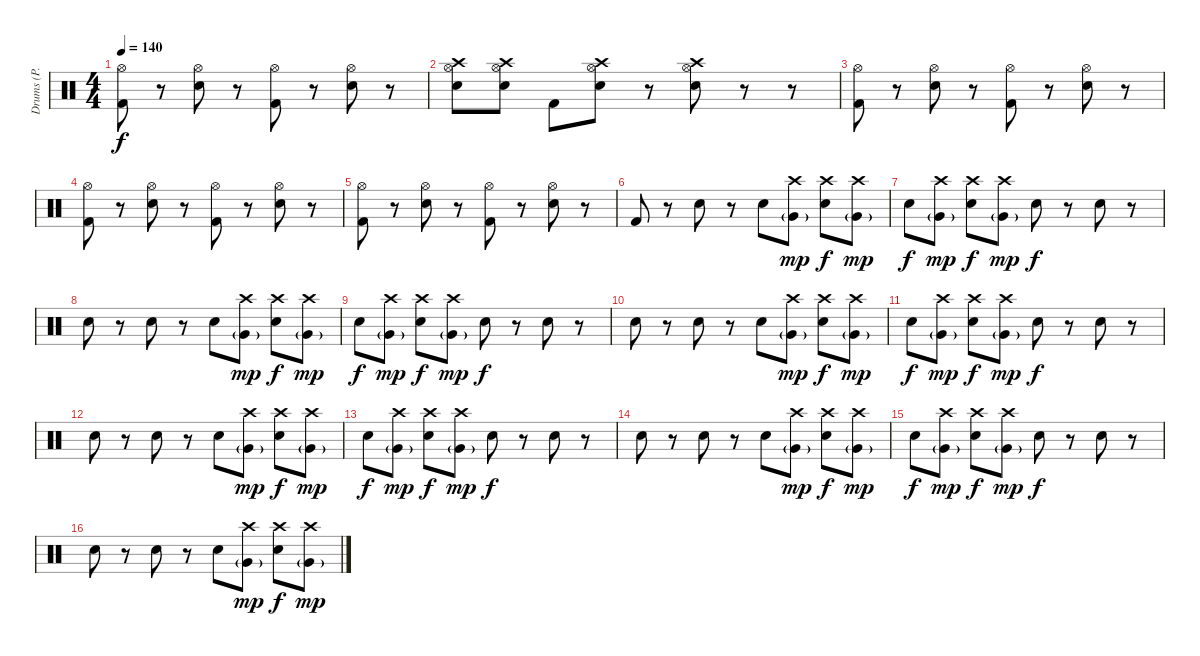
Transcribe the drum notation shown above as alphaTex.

\track ("Drums (P. Rudd)" "Drums (P. ") {instrument percussion}
\staff {score}
\articulation defaults
\ts (4 4)
\tempo 140
\clef neutral
\ks c
("Hi-Hat (open)" "Kick (hit) 2").8{dy f} r.8 ("Hi-Hat (open)" "Snare (hit) 2").8 r.8 ("Hi-Hat (open)" "Kick (hit) 2").8 r.8 ("Hi-Hat (open)" "Snare (hit) 2").8 r.8 |
("Hi-Hat (open)" "Crash high (hit)" "Snare (hit) 2").8 ("Hi-Hat (open)" "Crash high (hit)" "Snare (hit) 2").8 "Kick (hit) 2".8 ("Hi-Hat (open)" "Crash high (hit)" "Snare (hit) 2").8 r.8 ("Hi-Hat (open)" "Crash high (hit)" "Snare (hit) 2").8 r.8 r.8 |
("Hi-Hat (open)" "Kick (hit) 2").8 r.8 ("Hi-Hat (open)" "Snare (hit) 2").8 r.8 ("Hi-Hat (open)" "Kick (hit) 2").8 r.8 ("Hi-Hat (open)" "Snare (hit) 2").8 r.8 |
("Hi-Hat (open)" "Kick (hit) 2").8 r.8 ("Hi-Hat (open)" "Snare (hit) 2").8 r.8 ("Hi-Hat (open)" "Kick (hit) 2").8 r.8 ("Hi-Hat (open)" "Snare (hit) 2").8 r.8 |
("Hi-Hat (open)" "Kick (hit) 2").8 r.8 ("Hi-Hat (open)" "Snare (hit) 2").8 r.8 ("Hi-Hat (open)" "Kick (hit) 2").8 r.8 ("Hi-Hat (open)" "Snare (hit) 2").8 r.8 |
"Kick (hit) 2".8 r.8 "Snare (hit) 2".8 r.8 "Electric Snare (hit)".8 ("Crash high (hit)" "Very Low Tom (hit)"{g}).8{dy mp} ("Crash high (hit)" "Electric Snare (hit)").8{dy f} ("Crash high (hit)" "Very Low Tom (hit)"{g}).8{dy mp} |
"Electric Snare (hit)".8{dy f} ("Crash high (hit)" "Very Low Tom (hit)"{g}).8{dy mp} ("Crash high (hit)" "Electric Snare (hit)").8{dy f} ("Crash high (hit)" "Very Low Tom (hit)"{g}).8{dy mp} "Electric Snare (hit)".8{dy f} r.8 "Electric Snare (hit)".8 r.8 |
"Electric Snare (hit)".8 r.8 "Electric Snare (hit)".8 r.8 "Electric Snare (hit)".8 ("Crash high (hit)" "Very Low Tom (hit)"{g}).8{dy mp} ("Crash high (hit)" "Electric Snare (hit)").8{dy f} ("Crash high (hit)" "Very Low Tom (hit)"{g}).8{dy mp} |
"Electric Snare (hit)".8{dy f} ("Crash high (hit)" "Very Low Tom (hit)"{g}).8{dy mp} ("Crash high (hit)" "Electric Snare (hit)").8{dy f} ("Crash high (hit)" "Very Low Tom (hit)"{g}).8{dy mp} "Electric Snare (hit)".8{dy f} r.8 "Electric Snare (hit)".8 r.8 |
"Electric Snare (hit)".8 r.8 "Electric Snare (hit)".8 r.8 "Electric Snare (hit)".8 ("Crash high (hit)" "Very Low Tom (hit)"{g}).8{dy mp} ("Crash high (hit)" "Electric Snare (hit)").8{dy f} ("Crash high (hit)" "Very Low Tom (hit)"{g}).8{dy mp} |
"Electric Snare (hit)".8{dy f} ("Crash high (hit)" "Very Low Tom (hit)"{g}).8{dy mp} ("Crash high (hit)" "Electric Snare (hit)").8{dy f} ("Crash high (hit)" "Very Low Tom (hit)"{g}).8{dy mp} "Electric Snare (hit)".8{dy f} r.8 "Electric Snare (hit)".8 r.8 |
"Electric Snare (hit)".8 r.8 "Electric Snare (hit)".8 r.8 "Electric Snare (hit)".8 ("Crash high (hit)" "Very Low Tom (hit)"{g}).8{dy mp} ("Crash high (hit)" "Electric Snare (hit)").8{dy f} ("Crash high (hit)" "Very Low Tom (hit)"{g}).8{dy mp} |
"Electric Snare (hit)".8{dy f} ("Crash high (hit)" "Very Low Tom (hit)"{g}).8{dy mp} ("Crash high (hit)" "Electric Snare (hit)").8{dy f} ("Crash high (hit)" "Very Low Tom (hit)"{g}).8{dy mp} "Electric Snare (hit)".8{dy f} r.8 "Electric Snare (hit)".8 r.8 |
"Electric Snare (hit)".8 r.8 "Electric Snare (hit)".8 r.8 "Electric Snare (hit)".8 ("Crash high (hit)" "Very Low Tom (hit)"{g}).8{dy mp} ("Crash high (hit)" "Electric Snare (hit)").8{dy f} ("Crash high (hit)" "Very Low Tom (hit)"{g}).8{dy mp} |
"Electric Snare (hit)".8{dy f} ("Crash high (hit)" "Very Low Tom (hit)"{g}).8{dy mp} ("Crash high (hit)" "Electric Snare (hit)").8{dy f} ("Crash high (hit)" "Very Low Tom (hit)"{g}).8{dy mp} "Electric Snare (hit)".8{dy f} r.8 "Electric Snare (hit)".8 r.8 |
"Electric Snare (hit)".8 r.8 "Electric Snare (hit)".8 r.8 "Electric Snare (hit)".8 ("Crash high (hit)" "Very Low Tom (hit)"{g}).8{dy mp} ("Crash high (hit)" "Electric Snare (hit)").8{dy f} ("Crash high (hit)" "Very Low Tom (hit)"{g}).8{dy mp}
